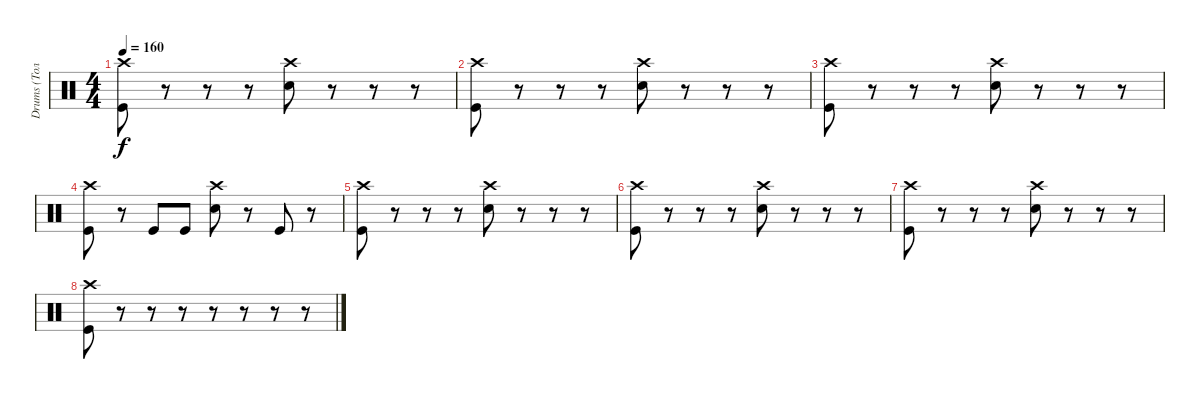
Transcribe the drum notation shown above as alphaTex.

\track ("Drums (Толян)" "Drums (Тол") {instrument percussion}
\staff {score}
\articulation defaults
\ts (4 4)
\tempo 160
\clef neutral
\ks c
("Crash high (hit)" "Kick (hit)").8{dy f} r.8 r.8 r.8 ("Crash high (hit)" "Electric Snare (hit)").8 r.8 r.8 r.8 |
("Crash high (hit)" "Kick (hit)").8 r.8 r.8 r.8 ("Crash high (hit)" "Electric Snare (hit)").8 r.8 r.8 r.8 |
("Crash high (hit)" "Kick (hit)").8 r.8 r.8 r.8 ("Crash high (hit)" "Electric Snare (hit)").8 r.8 r.8 r.8 |
("Crash high (hit)" "Kick (hit)").8 r.8 "Kick (hit)".8 "Kick (hit)".8 ("Crash high (hit)" "Electric Snare (hit)").8 r.8 "Kick (hit)".8 r.8 |
("Crash high (hit)" "Kick (hit)").8 r.8 r.8 r.8 ("Crash high (hit)" "Electric Snare (hit)").8 r.8 r.8 r.8 |
("Crash high (hit)" "Kick (hit)").8 r.8 r.8 r.8 ("Crash high (hit)" "Electric Snare (hit)").8 r.8 r.8 r.8 |
("Crash high (hit)" "Kick (hit)").8 r.8 r.8 r.8 ("Crash high (hit)" "Electric Snare (hit)").8 r.8 r.8 r.8 |
("Crash high (hit)" "Kick (hit)").8 r.8 r.8 r.8 r.8 r.8 r.8 r.8
